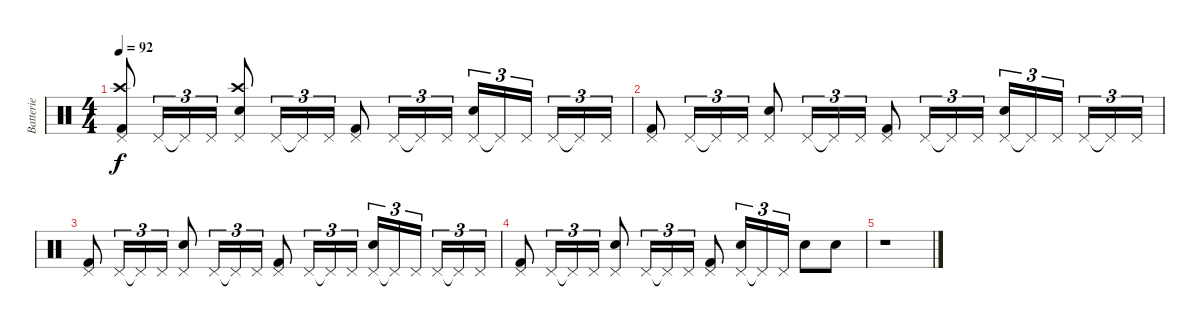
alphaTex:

\track ("Batterie" "Batterie") {instrument percussion}
\staff {score}
\articulation defaults
\ts (4 4)
\tempo 92
\clef neutral
\ks c
("Pedal Hi-Hat (hit)" "Crash high (hit)" "Kick (hit) 2").8{dy f} "Pedal Hi-Hat (hit)".16{tu (3 2)} "Pedal Hi-Hat (hit)"{t}.16{tu (3 2)} "Pedal Hi-Hat (hit)".16{tu (3 2)} ("Pedal Hi-Hat (hit)" "Crash high (hit)" "Electric Snare (hit)").8 "Pedal Hi-Hat (hit)".16{tu (3 2)} "Pedal Hi-Hat (hit)"{t}.16{tu (3 2)} "Pedal Hi-Hat (hit)".16{tu (3 2)} ("Pedal Hi-Hat (hit)" "Kick (hit) 2").8 "Pedal Hi-Hat (hit)".16{tu (3 2)} "Pedal Hi-Hat (hit)"{t}.16{tu (3 2)} "Pedal Hi-Hat (hit)".16{tu (3 2)} ("Pedal Hi-Hat (hit)" "Electric Snare (hit)").16{tu (3 2)} "Pedal Hi-Hat (hit)"{t}.16{tu (3 2)} "Pedal Hi-Hat (hit)".16{tu (3 2)} "Pedal Hi-Hat (hit)".16{tu (3 2)} "Pedal Hi-Hat (hit)"{t}.16{tu (3 2)} "Pedal Hi-Hat (hit)".16{tu (3 2)} |
("Pedal Hi-Hat (hit)" "Kick (hit) 2").8 "Pedal Hi-Hat (hit)".16{tu (3 2)} "Pedal Hi-Hat (hit)"{t}.16{tu (3 2)} "Pedal Hi-Hat (hit)".16{tu (3 2)} ("Pedal Hi-Hat (hit)" "Electric Snare (hit)").8 "Pedal Hi-Hat (hit)".16{tu (3 2)} "Pedal Hi-Hat (hit)"{t}.16{tu (3 2)} "Pedal Hi-Hat (hit)".16{tu (3 2)} ("Pedal Hi-Hat (hit)" "Kick (hit) 2").8 "Pedal Hi-Hat (hit)".16{tu (3 2)} "Pedal Hi-Hat (hit)"{t}.16{tu (3 2)} "Pedal Hi-Hat (hit)".16{tu (3 2)} ("Pedal Hi-Hat (hit)" "Electric Snare (hit)").16{tu (3 2)} "Pedal Hi-Hat (hit)"{t}.16{tu (3 2)} "Pedal Hi-Hat (hit)".16{tu (3 2)} "Pedal Hi-Hat (hit)".16{tu (3 2)} "Pedal Hi-Hat (hit)"{t}.16{tu (3 2)} "Pedal Hi-Hat (hit)".16{tu (3 2)} |
("Pedal Hi-Hat (hit)" "Kick (hit) 2").8 "Pedal Hi-Hat (hit)".16{tu (3 2)} "Pedal Hi-Hat (hit)"{t}.16{tu (3 2)} "Pedal Hi-Hat (hit)".16{tu (3 2)} ("Pedal Hi-Hat (hit)" "Electric Snare (hit)").8 "Pedal Hi-Hat (hit)".16{tu (3 2)} "Pedal Hi-Hat (hit)"{t}.16{tu (3 2)} "Pedal Hi-Hat (hit)".16{tu (3 2)} ("Pedal Hi-Hat (hit)" "Kick (hit) 2").8 "Pedal Hi-Hat (hit)".16{tu (3 2)} "Pedal Hi-Hat (hit)"{t}.16{tu (3 2)} "Pedal Hi-Hat (hit)".16{tu (3 2)} ("Pedal Hi-Hat (hit)" "Electric Snare (hit)").16{tu (3 2)} "Pedal Hi-Hat (hit)"{t}.16{tu (3 2)} "Pedal Hi-Hat (hit)".16{tu (3 2)} "Pedal Hi-Hat (hit)".16{tu (3 2)} "Pedal Hi-Hat (hit)"{t}.16{tu (3 2)} "Pedal Hi-Hat (hit)".16{tu (3 2)} |
("Pedal Hi-Hat (hit)" "Kick (hit) 2").8 "Pedal Hi-Hat (hit)".16{tu (3 2)} "Pedal Hi-Hat (hit)"{t}.16{tu (3 2)} "Pedal Hi-Hat (hit)".16{tu (3 2)} ("Pedal Hi-Hat (hit)" "Electric Snare (hit)").8 "Pedal Hi-Hat (hit)".16{tu (3 2)} "Pedal Hi-Hat (hit)"{t}.16{tu (3 2)} "Pedal Hi-Hat (hit)".16{tu (3 2)} ("Pedal Hi-Hat (hit)" "Kick (hit) 2").8 ("Pedal Hi-Hat (hit)" "Electric Snare (hit)").16{tu (3 2)} "Pedal Hi-Hat (hit)"{t}.16{tu (3 2)} "Pedal Hi-Hat (hit)".16{tu (3 2)} "Electric Snare (hit)".8 "Electric Snare (hit)".8 |
r.1
